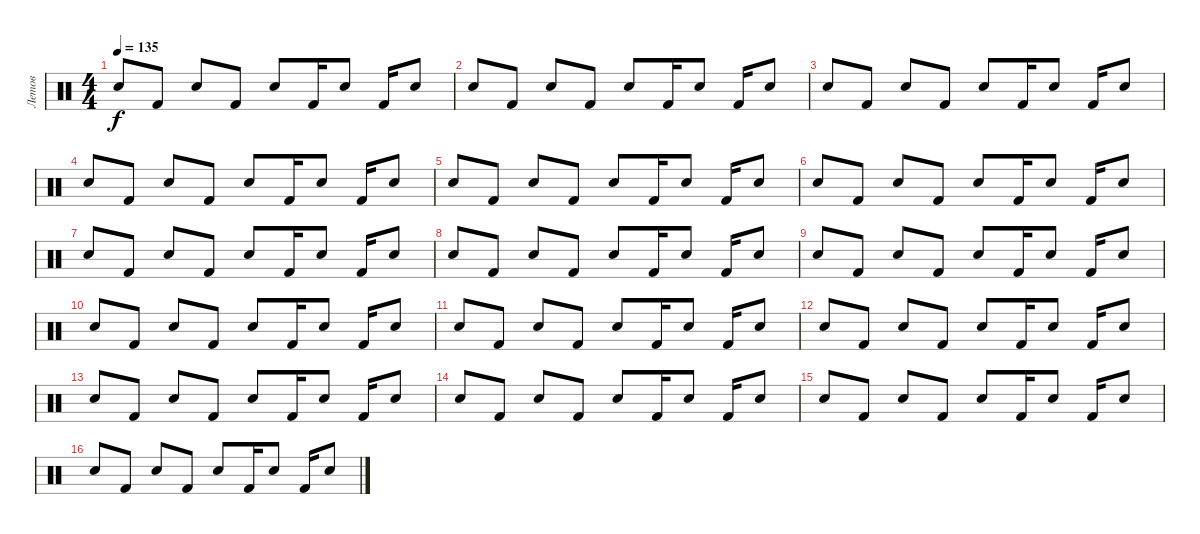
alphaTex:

\track ("Летов" "Летов") {instrument percussion}
\staff {score}
\articulation defaults
\ts (4 4)
\tempo 135
\clef neutral
\ks c "Electric Snare (hit)".8{dy f} "Kick (hit) 2".8 "Electric Snare (hit)".8 "Kick (hit) 2".8 "Electric Snare (hit)".8 "Kick (hit) 2".16 "Electric Snare (hit)".8 "Kick (hit) 2".16 "Electric Snare (hit)".8
|
"Electric Snare (hit)".8 "Kick (hit) 2".8 "Electric Snare (hit)".8 "Kick (hit) 2".8 "Electric Snare (hit)".8 "Kick (hit) 2".16 "Electric Snare (hit)".8 "Kick (hit) 2".16 "Electric Snare (hit)".8 |
"Electric Snare (hit)".8 "Kick (hit) 2".8 "Electric Snare (hit)".8 "Kick (hit) 2".8 "Electric Snare (hit)".8 "Kick (hit) 2".16 "Electric Snare (hit)".8 "Kick (hit) 2".16 "Electric Snare (hit)".8 |
"Electric Snare (hit)".8 "Kick (hit) 2".8 "Electric Snare (hit)".8 "Kick (hit) 2".8 "Electric Snare (hit)".8 "Kick (hit) 2".16 "Electric Snare (hit)".8 "Kick (hit) 2".16 "Electric Snare (hit)".8 |
"Electric Snare (hit)".8 "Kick (hit) 2".8 "Electric Snare (hit)".8 "Kick (hit) 2".8 "Electric Snare (hit)".8 "Kick (hit) 2".16 "Electric Snare (hit)".8 "Kick (hit) 2".16 "Electric Snare (hit)".8 |
"Electric Snare (hit)".8 "Kick (hit) 2".8 "Electric Snare (hit)".8 "Kick (hit) 2".8 "Electric Snare (hit)".8 "Kick (hit) 2".16 "Electric Snare (hit)".8 "Kick (hit) 2".16 "Electric Snare (hit)".8 |
"Electric Snare (hit)".8 "Kick (hit) 2".8 "Electric Snare (hit)".8 "Kick (hit) 2".8 "Electric Snare (hit)".8 "Kick (hit) 2".16 "Electric Snare (hit)".8 "Kick (hit) 2".16 "Electric Snare (hit)".8 |
"Electric Snare (hit)".8 "Kick (hit) 2".8 "Electric Snare (hit)".8 "Kick (hit) 2".8 "Electric Snare (hit)".8 "Kick (hit) 2".16 "Electric Snare (hit)".8 "Kick (hit) 2".16 "Electric Snare (hit)".8 |
"Electric Snare (hit)".8 "Kick (hit) 2".8 "Electric Snare (hit)".8 "Kick (hit) 2".8 "Electric Snare (hit)".8 "Kick (hit) 2".16 "Electric Snare (hit)".8 "Kick (hit) 2".16 "Electric Snare (hit)".8 |
"Electric Snare (hit)".8 "Kick (hit) 2".8 "Electric Snare (hit)".8 "Kick (hit) 2".8 "Electric Snare (hit)".8 "Kick (hit) 2".16 "Electric Snare (hit)".8 "Kick (hit) 2".16 "Electric Snare (hit)".8 |
"Electric Snare (hit)".8 "Kick (hit) 2".8 "Electric Snare (hit)".8 "Kick (hit) 2".8 "Electric Snare (hit)".8 "Kick (hit) 2".16 "Electric Snare (hit)".8 "Kick (hit) 2".16 "Electric Snare (hit)".8 |
"Electric Snare (hit)".8 "Kick (hit) 2".8 "Electric Snare (hit)".8 "Kick (hit) 2".8 "Electric Snare (hit)".8 "Kick (hit) 2".16 "Electric Snare (hit)".8 "Kick (hit) 2".16 "Electric Snare (hit)".8 |
"Electric Snare (hit)".8 "Kick (hit) 2".8 "Electric Snare (hit)".8 "Kick (hit) 2".8 "Electric Snare (hit)".8 "Kick (hit) 2".16 "Electric Snare (hit)".8 "Kick (hit) 2".16 "Electric Snare (hit)".8 |
"Electric Snare (hit)".8 "Kick (hit) 2".8 "Electric Snare (hit)".8 "Kick (hit) 2".8 "Electric Snare (hit)".8 "Kick (hit) 2".16 "Electric Snare (hit)".8 "Kick (hit) 2".16 "Electric Snare (hit)".8 |
"Electric Snare (hit)".8 "Kick (hit) 2".8 "Electric Snare (hit)".8 "Kick (hit) 2".8 "Electric Snare (hit)".8 "Kick (hit) 2".16 "Electric Snare (hit)".8 "Kick (hit) 2".16 "Electric Snare (hit)".8 |
"Electric Snare (hit)".8 "Kick (hit) 2".8 "Electric Snare (hit)".8 "Kick (hit) 2".8 "Electric Snare (hit)".8 "Kick (hit) 2".16 "Electric Snare (hit)".8 "Kick (hit) 2".16 "Electric Snare (hit)".8
